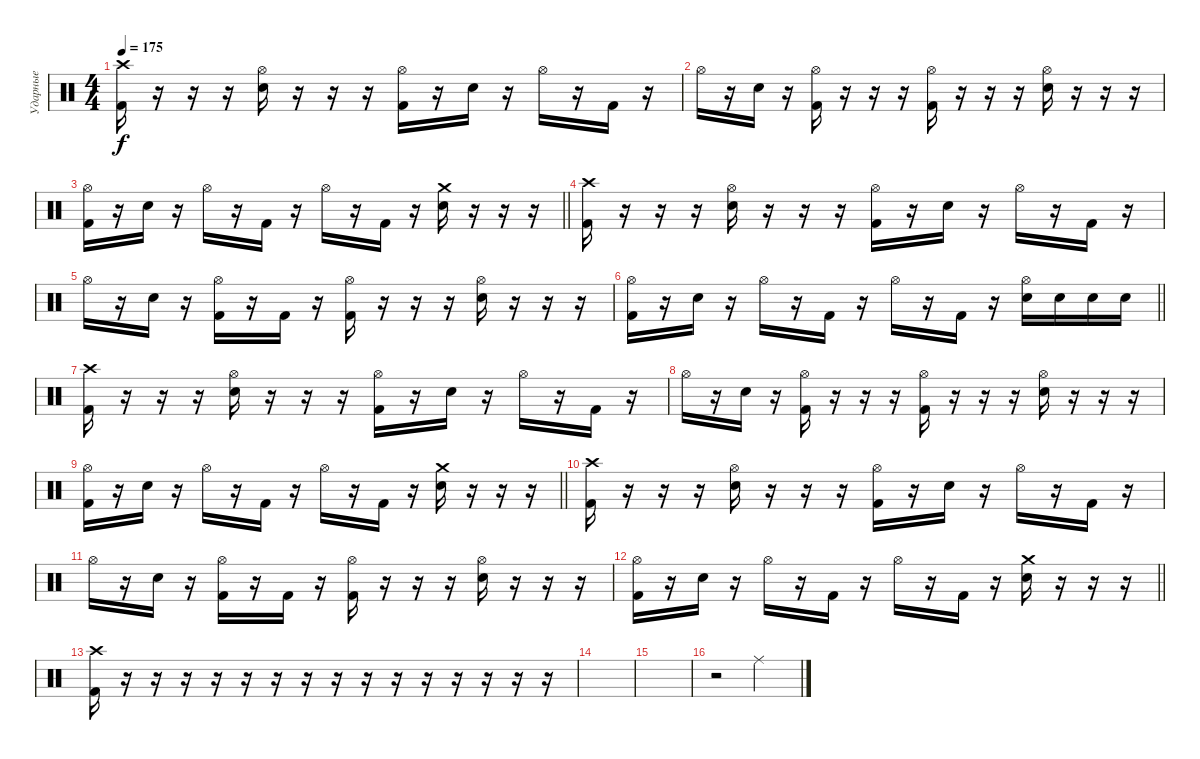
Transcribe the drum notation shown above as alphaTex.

\track ("Ударные" "Ударные") {instrument percussion}
\staff {score}
\articulation defaults
\ts (4 4)
\section ("" " ")
\tempo 175
\clef neutral
\ks c
("Crash high (hit)" "Kick (hit) 2").16{dy f} r.16 r.16 r.16 ("Hi-Hat (open)" "Electric Snare (hit)").16 r.16 r.16 r.16 ("Hi-Hat (open)" "Kick (hit) 2").16 r.16 "Electric Snare (hit)".16 r.16 "Hi-Hat (open)".16 r.16 "Kick (hit) 2".16 r.16 |
"Hi-Hat (open)".16 r.16 "Electric Snare (hit)".16 r.16 ("Hi-Hat (open)" "Kick (hit) 2").16 r.16 r.16 r.16 ("Hi-Hat (open)" "Kick (hit) 2").16 r.16 r.16 r.16 ("Hi-Hat (open)" "Electric Snare (hit)").16 r.16 r.16 r.16 |
\barLineRight lightlight
("Hi-Hat (open)" "Kick (hit) 2").16 r.16 "Electric Snare (hit)".16 r.16 "Hi-Hat (open)".16 r.16 "Kick (hit) 2".16 r.16 "Hi-Hat (open)".16 r.16 "Kick (hit) 2".16 r.16 ("Crash medium (hit)" "Electric Snare (hit)").16 r.16 r.16 r.16 |
("Crash high (hit)" "Kick (hit) 2").16 r.16 r.16 r.16 ("Hi-Hat (open)" "Electric Snare (hit)").16 r.16 r.16 r.16 ("Hi-Hat (open)" "Kick (hit) 2").16 r.16 "Electric Snare (hit)".16 r.16 "Hi-Hat (open)".16 r.16 "Kick (hit) 2".16 r.16 |
"Hi-Hat (open)".16 r.16 "Electric Snare (hit)".16 r.16 ("Hi-Hat (open)" "Kick (hit) 2").16 r.16 "Kick (hit) 2".16 r.16 ("Hi-Hat (open)" "Kick (hit) 2").16 r.16 r.16 r.16 ("Hi-Hat (open)" "Electric Snare (hit)").16 r.16 r.16 r.16 |
\barLineRight lightlight
("Hi-Hat (open)" "Kick (hit) 2").16 r.16 "Electric Snare (hit)".16 r.16 "Hi-Hat (open)".16 r.16 "Kick (hit) 2".16 r.16 "Hi-Hat (open)".16 r.16 "Kick (hit) 2".16 r.16 ("Hi-Hat (open)" "Electric Snare (hit)").16 "Electric Snare (hit)".16 "Electric Snare (hit)".16 "Electric Snare (hit)".16 |
("Crash high (hit)" "Kick (hit) 2").16 r.16 r.16 r.16 ("Hi-Hat (open)" "Electric Snare (hit)").16 r.16 r.16 r.16 ("Hi-Hat (open)" "Kick (hit) 2").16 r.16 "Electric Snare (hit)".16 r.16 "Hi-Hat (open)".16 r.16 "Kick (hit) 2".16 r.16 |
"Hi-Hat (open)".16 r.16 "Electric Snare (hit)".16 r.16 ("Hi-Hat (open)" "Kick (hit) 2").16 r.16 r.16 r.16 ("Hi-Hat (open)" "Kick (hit) 2").16 r.16 r.16 r.16 ("Hi-Hat (open)" "Electric Snare (hit)").16 r.16 r.16 r.16 |
\barLineRight lightlight
("Hi-Hat (open)" "Kick (hit) 2").16 r.16 "Electric Snare (hit)".16 r.16 "Hi-Hat (open)".16 r.16 "Kick (hit) 2".16 r.16 "Hi-Hat (open)".16 r.16 "Kick (hit) 2".16 r.16 ("Crash medium (hit)" "Electric Snare (hit)").16 r.16 r.16 r.16 |
("Crash high (hit)" "Kick (hit) 2").16 r.16 r.16 r.16 ("Hi-Hat (open)" "Electric Snare (hit)").16 r.16 r.16 r.16 ("Hi-Hat (open)" "Kick (hit) 2").16 r.16 "Electric Snare (hit)".16 r.16 "Hi-Hat (open)".16 r.16 "Kick (hit) 2".16 r.16 |
"Hi-Hat (open)".16 r.16 "Electric Snare (hit)".16 r.16 ("Hi-Hat (open)" "Kick (hit) 2").16 r.16 "Kick (hit) 2".16 r.16 ("Hi-Hat (open)" "Kick (hit) 2").16 r.16 r.16 r.16 ("Hi-Hat (open)" "Electric Snare (hit)").16 r.16 r.16 r.16 |
\barLineRight lightlight
("Hi-Hat (open)" "Kick (hit) 2").16 r.16 "Electric Snare (hit)".16 r.16 "Hi-Hat (open)".16 r.16 "Kick (hit) 2".16 r.16 "Hi-Hat (open)".16 r.16 "Kick (hit) 2".16 r.16 ("Crash medium (hit)" "Electric Snare (hit)").16 r.16 r.16 r.16 |
\section ("" " ")
("Crash high (hit)" "Kick (hit) 2").16 r.16 r.16 r.16 r.16 r.16 r.16 r.16 r.16 r.16 r.16 r.16 r.16 r.16 r.16 r.16 |
|
|
r.2 "Ride (middle)".2
